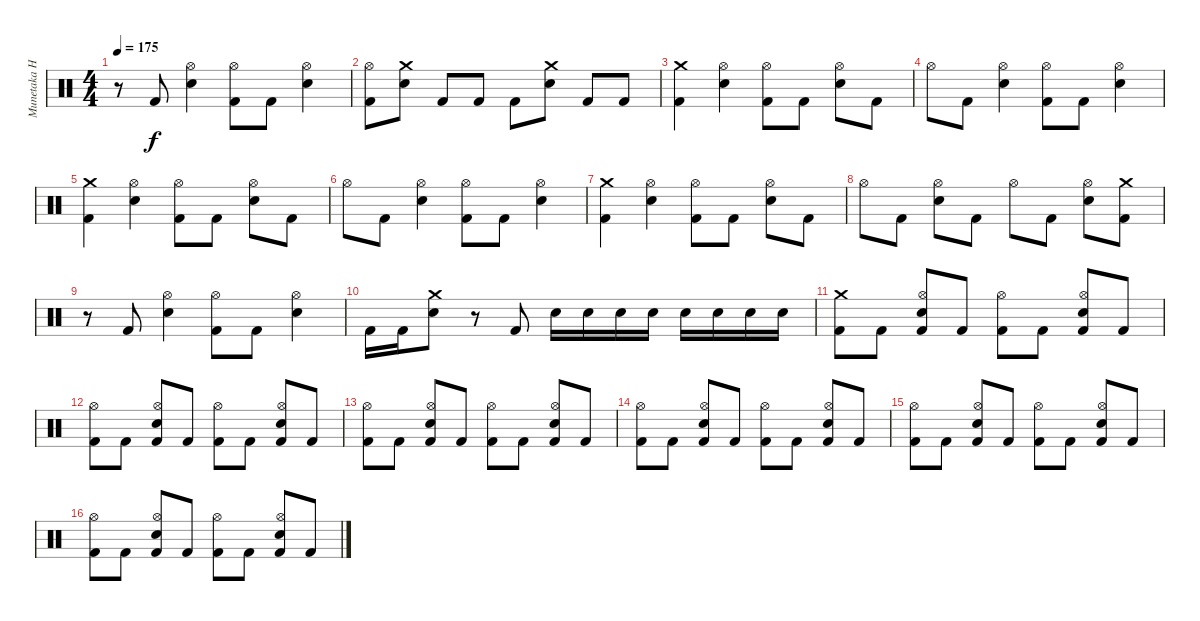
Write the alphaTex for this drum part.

\track ("Munetaka Higuchi" "Munetaka H") {instrument percussion}
\staff {score}
\articulation defaults
\ts (4 4)
\tempo 175
\clef neutral
\ks c
r.8{dy f} "Kick (hit) 2".8 ("Hi-Hat (open)" "Electric Snare (hit)").4 ("Hi-Hat (open)" "Kick (hit) 2").8 "Kick (hit) 2".8 ("Hi-Hat (open)" "Electric Snare (hit)").4 |
("Hi-Hat (open)" "Kick (hit) 2").8 ("Crash medium (hit)" "Electric Snare (hit)").8 "Kick (hit) 2".8 "Kick (hit) 2".8 "Kick (hit) 2".8 ("Crash medium (hit)" "Electric Snare (hit)").8 "Kick (hit) 2".8 "Kick (hit) 2".8 |
("Crash medium (hit)" "Kick (hit) 2").4 ("Hi-Hat (open)" "Electric Snare (hit)").4 ("Hi-Hat (open)" "Kick (hit) 2").8 "Kick (hit) 2".8 ("Hi-Hat (open)" "Electric Snare (hit)").8 "Kick (hit) 2".8 |
"Hi-Hat (open)".8 "Kick (hit) 2".8 ("Hi-Hat (open)" "Electric Snare (hit)").4 ("Hi-Hat (open)" "Kick (hit) 2").8 "Kick (hit) 2".8 ("Hi-Hat (open)" "Electric Snare (hit)").4 |
("Crash medium (hit)" "Kick (hit) 2").4 ("Hi-Hat (open)" "Electric Snare (hit)").4 ("Hi-Hat (open)" "Kick (hit) 2").8 "Kick (hit) 2".8 ("Hi-Hat (open)" "Electric Snare (hit)").8 "Kick (hit) 2".8 |
"Hi-Hat (open)".8 "Kick (hit) 2".8 ("Hi-Hat (open)" "Electric Snare (hit)").4 ("Hi-Hat (open)" "Kick (hit) 2").8 "Kick (hit) 2".8 ("Hi-Hat (open)" "Electric Snare (hit)").4 |
("Crash medium (hit)" "Kick (hit) 2").4 ("Hi-Hat (open)" "Electric Snare (hit)").4 ("Hi-Hat (open)" "Kick (hit) 2").8 "Kick (hit) 2".8 ("Hi-Hat (open)" "Electric Snare (hit)").8 "Kick (hit) 2".8 |
"Hi-Hat (open)".8 "Kick (hit) 2".8 ("Hi-Hat (open)" "Electric Snare (hit)").8 "Kick (hit) 2".8 "Hi-Hat (open)".8 "Kick (hit) 2".8 ("Hi-Hat (open)" "Electric Snare (hit)").8 ("Crash medium (hit)" "Kick (hit) 2").8 |
r.8 "Kick (hit) 2".8 ("Hi-Hat (open)" "Electric Snare (hit)").4 ("Hi-Hat (open)" "Kick (hit) 2").8 "Kick (hit) 2".8 ("Hi-Hat (open)" "Electric Snare (hit)").4 |
"Kick (hit) 2".16 "Kick (hit) 2".16 ("Crash medium (hit)" "Electric Snare (hit)").8 r.8 "Kick (hit) 2".8 "Electric Snare (hit)".16 "Electric Snare (hit)".16 "Electric Snare (hit)".16 "Electric Snare (hit)".16 "Electric Snare (hit)".16 "Electric Snare (hit)".16 "Electric Snare (hit)".16 "Electric Snare (hit)".16 |
("Crash medium (hit)" "Kick (hit) 2").8 "Kick (hit) 2".8 ("Hi-Hat (open)" "Electric Snare (hit)" "Kick (hit) 2").8 "Kick (hit) 2".8 ("Hi-Hat (open)" "Kick (hit) 2").8 "Kick (hit) 2".8 ("Hi-Hat (open)" "Electric Snare (hit)" "Kick (hit) 2").8 "Kick (hit) 2".8 |
("Hi-Hat (open)" "Kick (hit) 2").8 "Kick (hit) 2".8 ("Hi-Hat (open)" "Electric Snare (hit)" "Kick (hit) 2").8 "Kick (hit) 2".8 ("Hi-Hat (open)" "Kick (hit) 2").8 "Kick (hit) 2".8 ("Hi-Hat (open)" "Electric Snare (hit)" "Kick (hit) 2").8 "Kick (hit) 2".8 |
("Hi-Hat (open)" "Kick (hit) 2").8 "Kick (hit) 2".8 ("Hi-Hat (open)" "Electric Snare (hit)" "Kick (hit) 2").8 "Kick (hit) 2".8 ("Hi-Hat (open)" "Kick (hit) 2").8 "Kick (hit) 2".8 ("Hi-Hat (open)" "Electric Snare (hit)" "Kick (hit) 2").8 "Kick (hit) 2".8 |
("Hi-Hat (open)" "Kick (hit) 2").8 "Kick (hit) 2".8 ("Hi-Hat (open)" "Electric Snare (hit)" "Kick (hit) 2").8 "Kick (hit) 2".8 ("Hi-Hat (open)" "Kick (hit) 2").8 "Kick (hit) 2".8 ("Hi-Hat (open)" "Electric Snare (hit)" "Kick (hit) 2").8 "Kick (hit) 2".8 |
("Hi-Hat (open)" "Kick (hit) 2").8 "Kick (hit) 2".8 ("Hi-Hat (open)" "Electric Snare (hit)" "Kick (hit) 2").8 "Kick (hit) 2".8 ("Hi-Hat (open)" "Kick (hit) 2").8 "Kick (hit) 2".8 ("Hi-Hat (open)" "Electric Snare (hit)" "Kick (hit) 2").8 "Kick (hit) 2".8 |
("Hi-Hat (open)" "Kick (hit) 2").8 "Kick (hit) 2".8 ("Hi-Hat (open)" "Electric Snare (hit)" "Kick (hit) 2").8 "Kick (hit) 2".8 ("Hi-Hat (open)" "Kick (hit) 2").8 "Kick (hit) 2".8 ("Hi-Hat (open)" "Electric Snare (hit)" "Kick (hit) 2").8 "Kick (hit) 2".8
